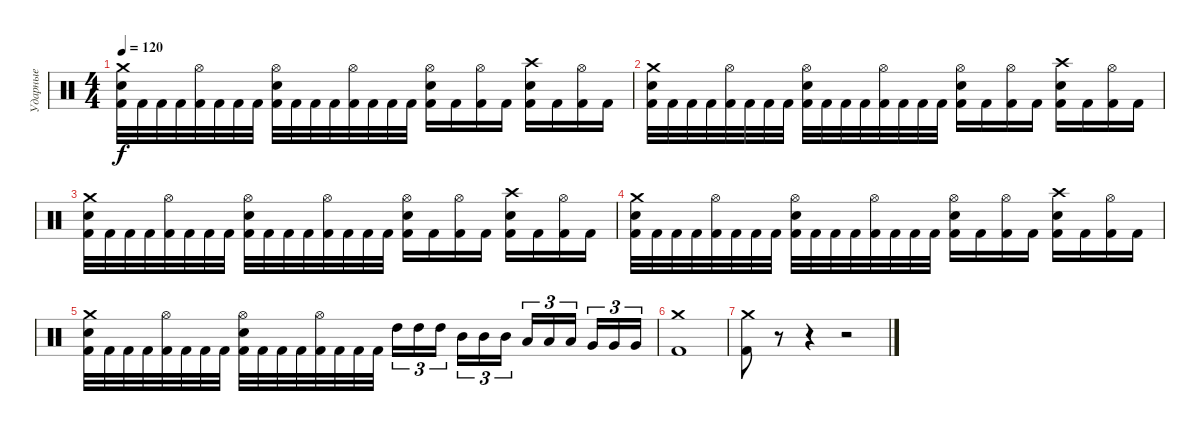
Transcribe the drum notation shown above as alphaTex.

\track ("Ударные" "Ударные") {instrument percussion}
\staff {score}
\articulation defaults
\ts (4 4)
\tempo 120
\clef neutral
\ks c
("Crash medium (hit)" "Electric Snare (hit)" "Kick (hit) 2").32{dy f} "Kick (hit) 2".32 "Kick (hit) 2".32 "Kick (hit) 2".32 ("Hi-Hat (open)" "Kick (hit) 2").32 "Kick (hit) 2".32 "Kick (hit) 2".32 "Kick (hit) 2".32 ("Hi-Hat (open)" "Electric Snare (hit)" "Kick (hit) 2").32 "Kick (hit) 2".32 "Kick (hit) 2".32 "Kick (hit) 2".32 ("Hi-Hat (open)" "Kick (hit) 2").32 "Kick (hit) 2".32 "Kick (hit) 2".32 "Kick (hit) 2".32 ("Hi-Hat (open)" "Electric Snare (hit)" "Kick (hit) 2").16 "Kick (hit) 2".16 ("Hi-Hat (open)" "Kick (hit) 2").16 "Kick (hit) 2".16 ("Crash high (hit)" "Electric Snare (hit)" "Kick (hit) 2").16 "Kick (hit) 2".16 ("Hi-Hat (open)" "Kick (hit) 2").16 "Kick (hit) 2".16 |
("Crash medium (hit)" "Electric Snare (hit)" "Kick (hit) 2").32 "Kick (hit) 2".32 "Kick (hit) 2".32 "Kick (hit) 2".32 ("Hi-Hat (open)" "Kick (hit) 2").32 "Kick (hit) 2".32 "Kick (hit) 2".32 "Kick (hit) 2".32 ("Hi-Hat (open)" "Electric Snare (hit)" "Kick (hit) 2").32 "Kick (hit) 2".32 "Kick (hit) 2".32 "Kick (hit) 2".32 ("Hi-Hat (open)" "Kick (hit) 2").32 "Kick (hit) 2".32 "Kick (hit) 2".32 "Kick (hit) 2".32 ("Hi-Hat (open)" "Electric Snare (hit)" "Kick (hit) 2").16 "Kick (hit) 2".16 ("Hi-Hat (open)" "Kick (hit) 2").16 "Kick (hit) 2".16 ("Crash high (hit)" "Electric Snare (hit)" "Kick (hit) 2").16 "Kick (hit) 2".16 ("Hi-Hat (open)" "Kick (hit) 2").16 "Kick (hit) 2".16 |
("Crash medium (hit)" "Electric Snare (hit)" "Kick (hit) 2").32 "Kick (hit) 2".32 "Kick (hit) 2".32 "Kick (hit) 2".32 ("Hi-Hat (open)" "Kick (hit) 2").32 "Kick (hit) 2".32 "Kick (hit) 2".32 "Kick (hit) 2".32 ("Hi-Hat (open)" "Electric Snare (hit)" "Kick (hit) 2").32 "Kick (hit) 2".32 "Kick (hit) 2".32 "Kick (hit) 2".32 ("Hi-Hat (open)" "Kick (hit) 2").32 "Kick (hit) 2".32 "Kick (hit) 2".32 "Kick (hit) 2".32 ("Hi-Hat (open)" "Electric Snare (hit)" "Kick (hit) 2").16 "Kick (hit) 2".16 ("Hi-Hat (open)" "Kick (hit) 2").16 "Kick (hit) 2".16 ("Crash high (hit)" "Electric Snare (hit)" "Kick (hit) 2").16 "Kick (hit) 2".16 ("Hi-Hat (open)" "Kick (hit) 2").16 "Kick (hit) 2".16 |
("Crash medium (hit)" "Electric Snare (hit)" "Kick (hit) 2").32 "Kick (hit) 2".32 "Kick (hit) 2".32 "Kick (hit) 2".32 ("Hi-Hat (open)" "Kick (hit) 2").32 "Kick (hit) 2".32 "Kick (hit) 2".32 "Kick (hit) 2".32 ("Hi-Hat (open)" "Electric Snare (hit)" "Kick (hit) 2").32 "Kick (hit) 2".32 "Kick (hit) 2".32 "Kick (hit) 2".32 ("Hi-Hat (open)" "Kick (hit) 2").32 "Kick (hit) 2".32 "Kick (hit) 2".32 "Kick (hit) 2".32 ("Hi-Hat (open)" "Electric Snare (hit)" "Kick (hit) 2").16 "Kick (hit) 2".16 ("Hi-Hat (open)" "Kick (hit) 2").16 "Kick (hit) 2".16 ("Crash high (hit)" "Electric Snare (hit)" "Kick (hit) 2").16 "Kick (hit) 2".16 ("Hi-Hat (open)" "Kick (hit) 2").16 "Kick (hit) 2".16 |
("Crash medium (hit)" "Electric Snare (hit)" "Kick (hit) 2").32 "Kick (hit) 2".32 "Kick (hit) 2".32 "Kick (hit) 2".32 ("Hi-Hat (open)" "Kick (hit) 2").32 "Kick (hit) 2".32 "Kick (hit) 2".32 "Kick (hit) 2".32 ("Hi-Hat (open)" "Electric Snare (hit)" "Kick (hit) 2").32 "Kick (hit) 2".32 "Kick (hit) 2".32 "Kick (hit) 2".32 ("Hi-Hat (open)" "Kick (hit) 2").32 "Kick (hit) 2".32 "Kick (hit) 2".32 "Kick (hit) 2".32 "High Tom (hit)".16{tu (3 2)} "High Tom (hit)".16{tu (3 2)} "High Tom (hit)".16{tu (3 2) beam splitsecondary} "Mid Tom (hit)".16{tu (3 2)} "Mid Tom (hit)".16{tu (3 2)} "Mid Tom (hit)".16{tu (3 2)} "Low Tom (hit)".16{tu (3 2)} "Low Tom (hit)".16{tu (3 2)} "Low Tom (hit)".16{tu (3 2) beam splitsecondary} "Very Low Tom (hit)".16{tu (3 2)} "Very Low Tom (hit)".16{tu (3 2)} "Very Low Tom (hit)".16{tu (3 2)} |
("Crash medium (hit)" "Kick (hit) 2").1 |
("Crash medium (hit)" "Kick (hit) 2").8 r.8 r.4 r.2
